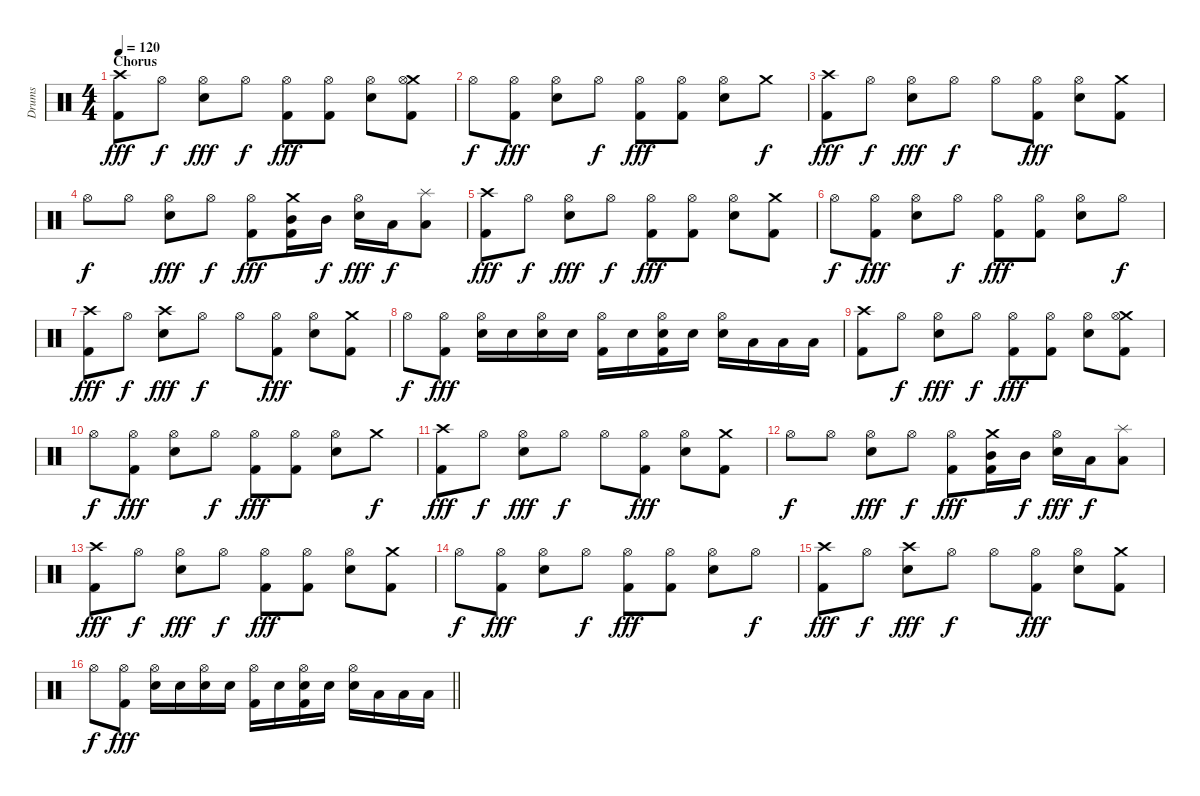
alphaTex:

\track ("Drums" "Drums") {instrument percussion}
\staff {score}
\articulation defaults
\ts (4 4)
\section ("" "Chorus")
\tempo 120
\clef neutral
\ks c
("Crash high (hit)" "Kick (hit) 2").8{dy fff} "Hi-Hat (open)".8{dy f} ("Hi-Hat (open)" "Snare (hit) 2").8{dy fff} "Hi-Hat (open)".8{dy f} ("Hi-Hat (open)" "Kick (hit) 2").8{dy fff} ("Hi-Hat (open)" "Kick (hit) 2").8 ("Hi-Hat (open)" "Snare (hit) 2").8 ("Crash medium (hit)" "Hi-Hat (open)" "Kick (hit) 2").8 |
"Hi-Hat (open)".8{dy f} ("Hi-Hat (open)" "Kick (hit) 2").8{dy fff} ("Hi-Hat (open)" "Snare (hit) 2").8 "Hi-Hat (open)".8{dy f} ("Hi-Hat (open)" "Kick (hit) 2").8{dy fff} ("Hi-Hat (open)" "Kick (hit) 2").8 ("Hi-Hat (open)" "Snare (hit) 2").8 "Crash medium (hit)".8{dy f} |
("Crash high (hit)" "Kick (hit) 2").8{dy fff} "Hi-Hat (open)".8{dy f} ("Hi-Hat (open)" "Snare (hit) 2").8{dy fff} "Hi-Hat (open)".8{dy f} "Hi-Hat (open)".8 ("Hi-Hat (open)" "Kick (hit) 2").8{dy fff} ("Hi-Hat (open)" "Snare (hit) 2").8 ("Crash medium (hit)" "Kick (hit) 2").8 |
"Hi-Hat (open)".8{dy f} "Hi-Hat (open)".8 ("Hi-Hat (open)" "Snare (hit) 2").8{dy fff} "Hi-Hat (open)".8{dy f} ("Hi-Hat (open)" "Kick (hit) 2").8{dy fff} ("Crash medium (hit)" "Mid Tom (hit)" "Kick (hit) 2").16 "Mid Tom (hit)".16{dy f} ("Hi-Hat (open)" "Snare (hit) 2").16{dy fff} "Low Tom (hit)".16{dy f} ("Splash (hit)" "Low Tom (hit)").8 |
("Crash high (hit)" "Kick (hit) 2").8{dy fff} "Hi-Hat (open)".8{dy f} ("Hi-Hat (open)" "Snare (hit) 2").8{dy fff} "Hi-Hat (open)".8{dy f} ("Hi-Hat (open)" "Kick (hit) 2").8{dy fff} ("Hi-Hat (open)" "Kick (hit) 2").8 ("Hi-Hat (open)" "Snare (hit) 2").8 ("Crash medium (hit)" "Kick (hit) 2").8 |
"Hi-Hat (open)".8{dy f} ("Hi-Hat (open)" "Kick (hit) 2").8{dy fff} ("Hi-Hat (open)" "Snare (hit) 2").8 "Hi-Hat (open)".8{dy f} ("Hi-Hat (open)" "Kick (hit) 2").8{dy fff} ("Hi-Hat (open)" "Kick (hit) 2").8 ("Hi-Hat (open)" "Snare (hit) 2").8 "Hi-Hat (open)".8{dy f} |
("Crash high (hit)" "Kick (hit) 2").8{dy fff} "Hi-Hat (open)".8{dy f} ("Crash high (hit)" "Snare (hit) 2").8{dy fff} "Hi-Hat (open)".8{dy f} "Hi-Hat (open)".8 ("Hi-Hat (open)" "Kick (hit) 2").8{dy fff} ("Hi-Hat (open)" "Snare (hit) 2").8 ("Crash medium (hit)" "Kick (hit) 2").8 |
"Hi-Hat (open)".8{dy f} ("Hi-Hat (open)" "Kick (hit) 2").8{dy fff} ("Hi-Hat (open)" "Snare (hit) 2").16 "Snare (hit) 2".16 ("Hi-Hat (open)" "Snare (hit) 2").16 "Snare (hit) 2".16 ("Hi-Hat (open)" "Kick (hit) 2").16 "Snare (hit) 2".16 ("Hi-Hat (open)" "Snare (hit) 2" "Kick (hit) 2").16 "Snare (hit) 2".16 ("Hi-Hat (open)" "Snare (hit) 2").16 "Low Tom (hit)".16 "Low Tom (hit)".16 "Low Floor Tom (hit)".16 |
("Crash high (hit)" "Kick (hit) 2").8 "Hi-Hat (open)".8{dy f} ("Hi-Hat (open)" "Snare (hit) 2").8{dy fff} "Hi-Hat (open)".8{dy f} ("Hi-Hat (open)" "Kick (hit) 2").8{dy fff} ("Hi-Hat (open)" "Kick (hit) 2").8 ("Hi-Hat (open)" "Snare (hit) 2").8 ("Crash medium (hit)" "Hi-Hat (open)" "Kick (hit) 2").8 |
"Hi-Hat (open)".8{dy f} ("Hi-Hat (open)" "Kick (hit) 2").8{dy fff} ("Hi-Hat (open)" "Snare (hit) 2").8 "Hi-Hat (open)".8{dy f} ("Hi-Hat (open)" "Kick (hit) 2").8{dy fff} ("Hi-Hat (open)" "Kick (hit) 2").8 ("Hi-Hat (open)" "Snare (hit) 2").8 "Crash medium (hit)".8{dy f} |
("Crash high (hit)" "Kick (hit) 2").8{dy fff} "Hi-Hat (open)".8{dy f} ("Hi-Hat (open)" "Snare (hit) 2").8{dy fff} "Hi-Hat (open)".8{dy f} "Hi-Hat (open)".8 ("Hi-Hat (open)" "Kick (hit) 2").8{dy fff} ("Hi-Hat (open)" "Snare (hit) 2").8 ("Crash medium (hit)" "Kick (hit) 2").8 |
"Hi-Hat (open)".8{dy f} "Hi-Hat (open)".8 ("Hi-Hat (open)" "Snare (hit) 2").8{dy fff} "Hi-Hat (open)".8{dy f} ("Hi-Hat (open)" "Kick (hit) 2").8{dy fff} ("Crash medium (hit)" "Mid Tom (hit)" "Kick (hit) 2").16 "Mid Tom (hit)".16{dy f} ("Hi-Hat (open)" "Snare (hit) 2").16{dy fff} "Low Tom (hit)".16{dy f} ("Splash (hit)" "Low Tom (hit)").8 |
("Crash high (hit)" "Kick (hit) 2").8{dy fff} "Hi-Hat (open)".8{dy f} ("Hi-Hat (open)" "Snare (hit) 2").8{dy fff} "Hi-Hat (open)".8{dy f} ("Hi-Hat (open)" "Kick (hit) 2").8{dy fff} ("Hi-Hat (open)" "Kick (hit) 2").8 ("Hi-Hat (open)" "Snare (hit) 2").8 ("Crash medium (hit)" "Kick (hit) 2").8 |
"Hi-Hat (open)".8{dy f} ("Hi-Hat (open)" "Kick (hit) 2").8{dy fff} ("Hi-Hat (open)" "Snare (hit) 2").8 "Hi-Hat (open)".8{dy f} ("Hi-Hat (open)" "Kick (hit) 2").8{dy fff} ("Hi-Hat (open)" "Kick (hit) 2").8 ("Hi-Hat (open)" "Snare (hit) 2").8 "Hi-Hat (open)".8{dy f} |
("Crash high (hit)" "Kick (hit) 2").8{dy fff} "Hi-Hat (open)".8{dy f} ("Crash high (hit)" "Snare (hit) 2").8{dy fff} "Hi-Hat (open)".8{dy f} "Hi-Hat (open)".8 ("Hi-Hat (open)" "Kick (hit) 2").8{dy fff} ("Hi-Hat (open)" "Snare (hit) 2").8 ("Crash medium (hit)" "Kick (hit) 2").8 |
\barLineRight lightlight "Hi-Hat (open)".8{dy f}
("Hi-Hat (open)" "Kick (hit) 2").8{dy fff} ("Hi-Hat (open)" "Snare (hit) 2").16 "Snare (hit) 2".16 ("Hi-Hat (open)" "Snare (hit) 2").16 "Snare (hit) 2".16 ("Hi-Hat (open)" "Kick (hit) 2").16 "Snare (hit) 2".16 ("Hi-Hat (open)" "Snare (hit) 2" "Kick (hit) 2").16 "Snare (hit) 2".16 ("Hi-Hat (open)" "Snare (hit) 2").16 "Low Tom (hit)".16 "Low Tom (hit)".16 "Low Floor Tom (hit)".16
